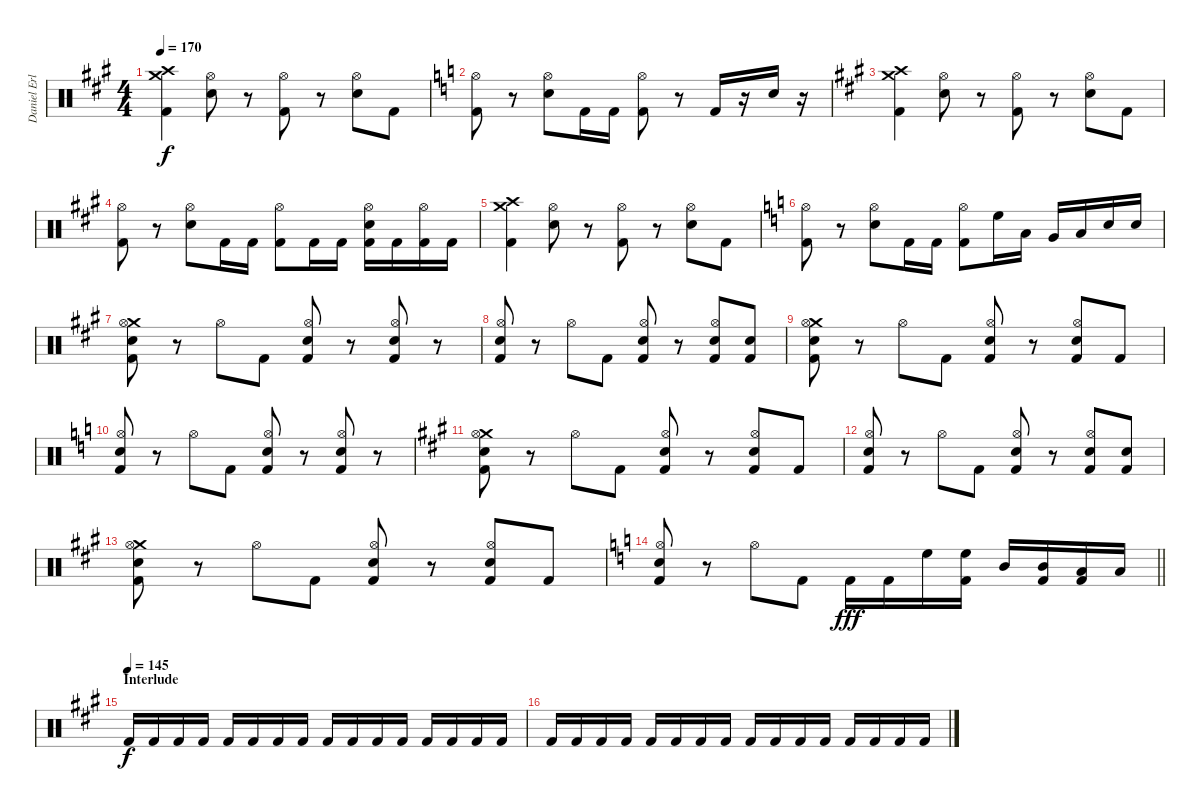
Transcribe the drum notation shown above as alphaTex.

\track ("Daniel Erlandsson" "Daniel Erl") {instrument percussion}
\staff {score}
\articulation defaults
\ts (4 4)
\tempo 170
\clef neutral
\ks a
("Crash medium (hit)" "Crash high (hit)" "Kick (hit) 2").4{dy f} ("Hi-Hat (open)" "Electric Snare (hit)").8 r.8 ("Hi-Hat (open)" "Kick (hit) 2").8 r.8 ("Hi-Hat (open)" "Electric Snare (hit)").8 "Kick (hit) 2".8 |
\ks c
("Hi-Hat (open)" "Kick (hit) 2").8 r.8 ("Hi-Hat (open)" "Electric Snare (hit)").8 "Kick (hit) 2".16 "Kick (hit) 2".16 ("Hi-Hat (open)" "Kick (hit) 2").8 r.8 "Kick (hit) 2".16 r.16 "Electric Snare (hit)".16 r.16 |
\ks a
("Crash medium (hit)" "Crash high (hit)" "Kick (hit) 2").4 ("Hi-Hat (open)" "Electric Snare (hit)").8 r.8 ("Hi-Hat (open)" "Kick (hit) 2").8 r.8 ("Hi-Hat (open)" "Electric Snare (hit)").8 "Kick (hit) 2".8 |
("Hi-Hat (open)" "Kick (hit) 2").8 r.8 ("Hi-Hat (open)" "Electric Snare (hit)").8 "Kick (hit) 2".16 "Kick (hit) 2".16 ("Hi-Hat (open)" "Kick (hit) 2").8 "Kick (hit) 2".16 "Kick (hit) 2".16 ("Hi-Hat (open)" "Electric Snare (hit)" "Kick (hit) 2").16 "Kick (hit) 2".16 ("Hi-Hat (open)" "Kick (hit) 2").16 "Kick (hit) 2".16 |
("Crash medium (hit)" "Crash high (hit)" "Kick (hit) 2").4 ("Hi-Hat (open)" "Electric Snare (hit)").8 r.8 ("Hi-Hat (open)" "Kick (hit) 2").8 r.8 ("Hi-Hat (open)" "Electric Snare (hit)").8 "Kick (hit) 2".8 |
\ks c
("Hi-Hat (open)" "Kick (hit) 2").8 r.8 ("Hi-Hat (open)" "Electric Snare (hit)").8 "Kick (hit) 2".16 "Kick (hit) 2".16 ("Hi-Hat (open)" "Kick (hit) 2").8 "High Floor Tom (hit)".16 "Low Tom (hit)".16 "Very Low Tom (hit)".16 "Low Floor Tom (hit)".16 "Electric Snare (hit)".16 "Snare (hit) 2".16 |
\ks a
("Crash medium (hit)" "Hi-Hat (open)" "Electric Snare (hit)" "Kick (hit) 2").8 r.8 "Hi-Hat (open)".8 "Kick (hit) 2".8 ("Hi-Hat (open)" "Electric Snare (hit)" "Kick (hit) 2").8 r.8 ("Hi-Hat (open)" "Electric Snare (hit)" "Kick (hit) 2").8 r.8 |
("Hi-Hat (open)" "Electric Snare (hit)" "Kick (hit) 2").8 r.8 "Hi-Hat (open)".8 "Kick (hit) 2".8 ("Hi-Hat (open)" "Electric Snare (hit)" "Kick (hit) 2").8 r.8 ("Hi-Hat (open)" "Electric Snare (hit)" "Kick (hit) 2").8 ("Electric Snare (hit)" "Kick (hit) 2").8 |
("Crash medium (hit)" "Hi-Hat (open)" "Electric Snare (hit)" "Kick (hit) 2").8 r.8 "Hi-Hat (open)".8 "Kick (hit) 2".8 ("Hi-Hat (open)" "Electric Snare (hit)" "Kick (hit) 2").8 r.8 ("Hi-Hat (open)" "Electric Snare (hit)" "Kick (hit) 2").8 "Kick (hit) 2".8 |
\ks c
("Hi-Hat (open)" "Electric Snare (hit)" "Kick (hit) 2").8 r.8 "Hi-Hat (open)".8 "Kick (hit) 2".8 ("Hi-Hat (open)" "Electric Snare (hit)" "Kick (hit) 2").8 r.8 ("Hi-Hat (open)" "Electric Snare (hit)" "Kick (hit) 2").8 r.8 |
\ks a
("Crash medium (hit)" "Hi-Hat (open)" "Electric Snare (hit)" "Kick (hit) 2").8 r.8 "Hi-Hat (open)".8 "Kick (hit) 2".8 ("Hi-Hat (open)" "Electric Snare (hit)" "Kick (hit) 2").8 r.8 ("Hi-Hat (open)" "Electric Snare (hit)" "Kick (hit) 2").8 "Kick (hit) 2".8 |
("Hi-Hat (open)" "Electric Snare (hit)" "Kick (hit) 2").8 r.8 "Hi-Hat (open)".8 "Kick (hit) 2".8 ("Hi-Hat (open)" "Electric Snare (hit)" "Kick (hit) 2").8 r.8 ("Hi-Hat (open)" "Electric Snare (hit)" "Kick (hit) 2").8 ("Electric Snare (hit)" "Kick (hit) 2").8 |
("Crash medium (hit)" "Hi-Hat (open)" "Electric Snare (hit)" "Kick (hit) 2").8 r.8 "Hi-Hat (open)".8 "Kick (hit) 2".8 ("Hi-Hat (open)" "Electric Snare (hit)" "Kick (hit) 2").8 r.8 ("Hi-Hat (open)" "Electric Snare (hit)" "Kick (hit) 2").8 "Kick (hit) 2".8 |
\barLineRight lightlight
\ks c
("Hi-Hat (open)" "Electric Snare (hit)" "Kick (hit) 2").8 r.8 "Hi-Hat (open)".8 "Kick (hit) 2".8 "Kick (hit) 2".16{dy fff} "Kick (hit) 2".16 "High Floor Tom (hit)".16 ("High Floor Tom (hit)" "Kick (hit) 2").16 "Mid Tom (hit)".16 ("Mid Tom (hit)" "Kick (hit) 2").16 ("Low Tom (hit)" "Kick (hit) 2").16 "Low Tom (hit)".16 |
\section ("" "Interlude")
\tempo 145
\ks a "Kick (hit) 2".16{dy f} "Kick (hit) 2".16 "Kick (hit) 2".16 "Kick (hit) 2".16 "Kick (hit) 2".16 "Kick (hit) 2".16 "Kick (hit) 2".16 "Kick (hit) 2".16 "Kick (hit) 2".16 "Kick (hit) 2".16 "Kick (hit) 2".16 "Kick (hit) 2".16 "Kick (hit) 2".16 "Kick (hit) 2".16 "Kick (hit) 2".16 "Kick (hit) 2".16
|
"Kick (hit) 2".16 "Kick (hit) 2".16 "Kick (hit) 2".16 "Kick (hit) 2".16 "Kick (hit) 2".16 "Kick (hit) 2".16 "Kick (hit) 2".16 "Kick (hit) 2".16 "Kick (hit) 2".16 "Kick (hit) 2".16 "Kick (hit) 2".16 "Kick (hit) 2".16 "Kick (hit) 2".16 "Kick (hit) 2".16 "Kick (hit) 2".16 "Kick (hit) 2".16
